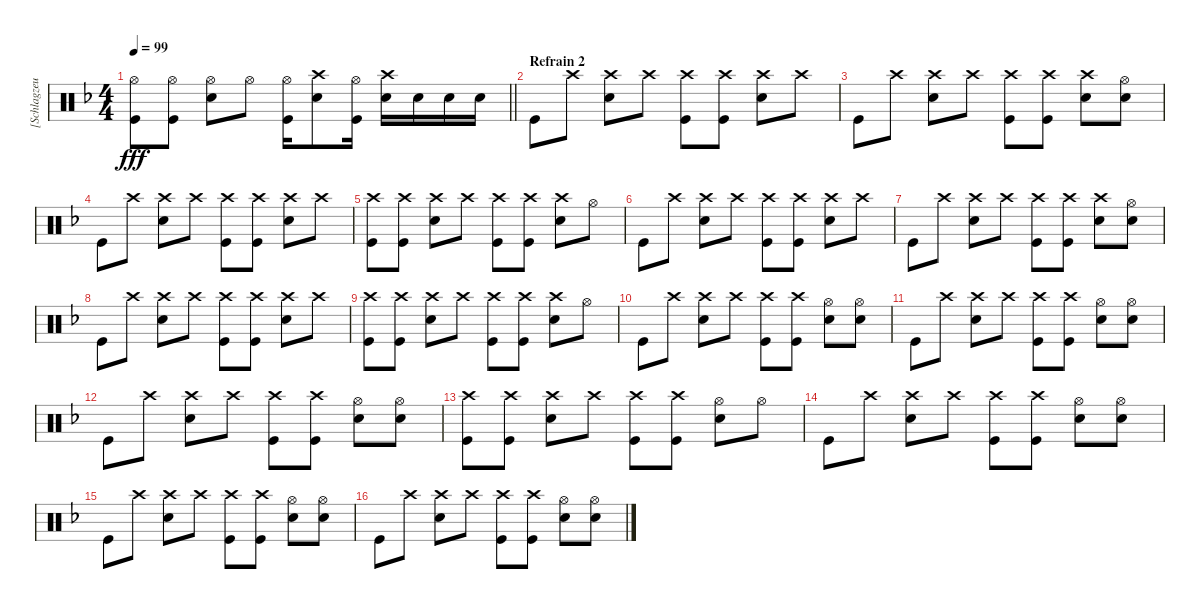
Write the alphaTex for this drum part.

\track ("[Schlagzeug]" "[Schlagzeu") {instrument percussion}
\staff {score}
\articulation defaults
\ts (4 4)
\tempo 99
\clef neutral
\barLineRight lightlight
\ks dminor
("Hi-Hat (open)" "Kick (hit)").8{dy fff} ("Hi-Hat (open)" "Kick (hit)").8 ("Hi-Hat (open)" "Electric Snare (hit)").8 "Hi-Hat (open)".8 ("Hi-Hat (open)" "Kick (hit)").16 ("Crash high (hit)" "Electric Snare (hit)").8 ("Hi-Hat (open)" "Kick (hit)").16 ("Crash high (hit)" "Electric Snare (hit)").16 "Electric Snare (hit)".16 "Electric Snare (hit)".16 "Electric Snare (hit)".16 |
\section ("" "Refrain 2")
"Kick (hit)".8 "Crash high (hit)".8 ("Crash high (hit)" "Electric Snare (hit)").8 "Crash high (hit)".8 ("Crash high (hit)" "Kick (hit)").8 ("Crash high (hit)" "Kick (hit)").8 ("Crash high (hit)" "Electric Snare (hit)").8 "Crash high (hit)".8 |
"Kick (hit)".8 "Crash high (hit)".8 ("Crash high (hit)" "Electric Snare (hit)").8 "Crash high (hit)".8 ("Crash high (hit)" "Kick (hit)").8 ("Crash high (hit)" "Kick (hit)").8 ("Crash high (hit)" "Electric Snare (hit)").8 ("Hi-Hat (open)" "Electric Snare (hit)").8 |
"Kick (hit)".8 "Crash high (hit)".8 ("Crash high (hit)" "Electric Snare (hit)").8 "Crash high (hit)".8 ("Crash high (hit)" "Kick (hit)").8 ("Crash high (hit)" "Kick (hit)").8 ("Crash high (hit)" "Electric Snare (hit)").8 "Crash high (hit)".8 |
("Crash high (hit)" "Kick (hit)").8 ("Crash high (hit)" "Kick (hit)").8 ("Crash high (hit)" "Electric Snare (hit)").8 "Crash high (hit)".8 ("Crash high (hit)" "Kick (hit)").8 ("Crash high (hit)" "Kick (hit)").8 ("Crash high (hit)" "Electric Snare (hit)").8 "Hi-Hat (open)".8 |
"Kick (hit)".8 "Crash high (hit)".8 ("Crash high (hit)" "Electric Snare (hit)").8 "Crash high (hit)".8 ("Crash high (hit)" "Kick (hit)").8 ("Crash high (hit)" "Kick (hit)").8 ("Crash high (hit)" "Electric Snare (hit)").8 "Crash high (hit)".8 |
"Kick (hit)".8 "Crash high (hit)".8 ("Crash high (hit)" "Electric Snare (hit)").8 "Crash high (hit)".8 ("Crash high (hit)" "Kick (hit)").8 ("Crash high (hit)" "Kick (hit)").8 ("Crash high (hit)" "Electric Snare (hit)").8 ("Hi-Hat (open)" "Electric Snare (hit)").8 |
"Kick (hit)".8 "Crash high (hit)".8 ("Crash high (hit)" "Electric Snare (hit)").8 "Crash high (hit)".8 ("Crash high (hit)" "Kick (hit)").8 ("Crash high (hit)" "Kick (hit)").8 ("Crash high (hit)" "Electric Snare (hit)").8 "Crash high (hit)".8 |
("Crash high (hit)" "Kick (hit)").8 ("Crash high (hit)" "Kick (hit)").8 ("Crash high (hit)" "Electric Snare (hit)").8 "Crash high (hit)".8 ("Crash high (hit)" "Kick (hit)").8 ("Crash high (hit)" "Kick (hit)").8 ("Crash high (hit)" "Electric Snare (hit)").8 "Hi-Hat (open)".8 |
"Kick (hit)".8 "Crash high (hit)".8 ("Crash high (hit)" "Electric Snare (hit)").8 "Crash high (hit)".8 ("Crash high (hit)" "Kick (hit)").8 ("Crash high (hit)" "Kick (hit)").8 ("Hi-Hat (open)" "Electric Snare (hit)").8 ("Hi-Hat (open)" "Electric Snare (hit)").8 |
"Kick (hit)".8 "Crash high (hit)".8 ("Crash high (hit)" "Electric Snare (hit)").8 "Crash high (hit)".8 ("Crash high (hit)" "Kick (hit)").8 ("Crash high (hit)" "Kick (hit)").8 ("Hi-Hat (open)" "Electric Snare (hit)").8 ("Hi-Hat (open)" "Electric Snare (hit)").8 |
"Kick (hit)".8 "Crash high (hit)".8 ("Crash high (hit)" "Electric Snare (hit)").8 "Crash high (hit)".8 ("Crash high (hit)" "Kick (hit)").8 ("Crash high (hit)" "Kick (hit)").8 ("Hi-Hat (open)" "Electric Snare (hit)").8 ("Hi-Hat (open)" "Electric Snare (hit)").8 |
("Crash high (hit)" "Kick (hit)").8 ("Crash high (hit)" "Kick (hit)").8 ("Crash high (hit)" "Electric Snare (hit)").8 "Crash high (hit)".8 ("Crash high (hit)" "Kick (hit)").8 ("Crash high (hit)" "Kick (hit)").8 ("Hi-Hat (open)" "Electric Snare (hit)").8 "Hi-Hat (open)".8 |
"Kick (hit)".8 "Crash high (hit)".8 ("Crash high (hit)" "Electric Snare (hit)").8 "Crash high (hit)".8 ("Crash high (hit)" "Kick (hit)").8 ("Crash high (hit)" "Kick (hit)").8 ("Hi-Hat (open)" "Electric Snare (hit)").8 ("Hi-Hat (open)" "Electric Snare (hit)").8 |
"Kick (hit)".8 "Crash high (hit)".8 ("Crash high (hit)" "Electric Snare (hit)").8 "Crash high (hit)".8 ("Crash high (hit)" "Kick (hit)").8 ("Crash high (hit)" "Kick (hit)").8 ("Hi-Hat (open)" "Electric Snare (hit)").8 ("Hi-Hat (open)" "Electric Snare (hit)").8 |
"Kick (hit)".8 "Crash high (hit)".8 ("Crash high (hit)" "Electric Snare (hit)").8 "Crash high (hit)".8 ("Crash high (hit)" "Kick (hit)").8 ("Crash high (hit)" "Kick (hit)").8 ("Hi-Hat (open)" "Electric Snare (hit)").8 ("Hi-Hat (open)" "Electric Snare (hit)").8
